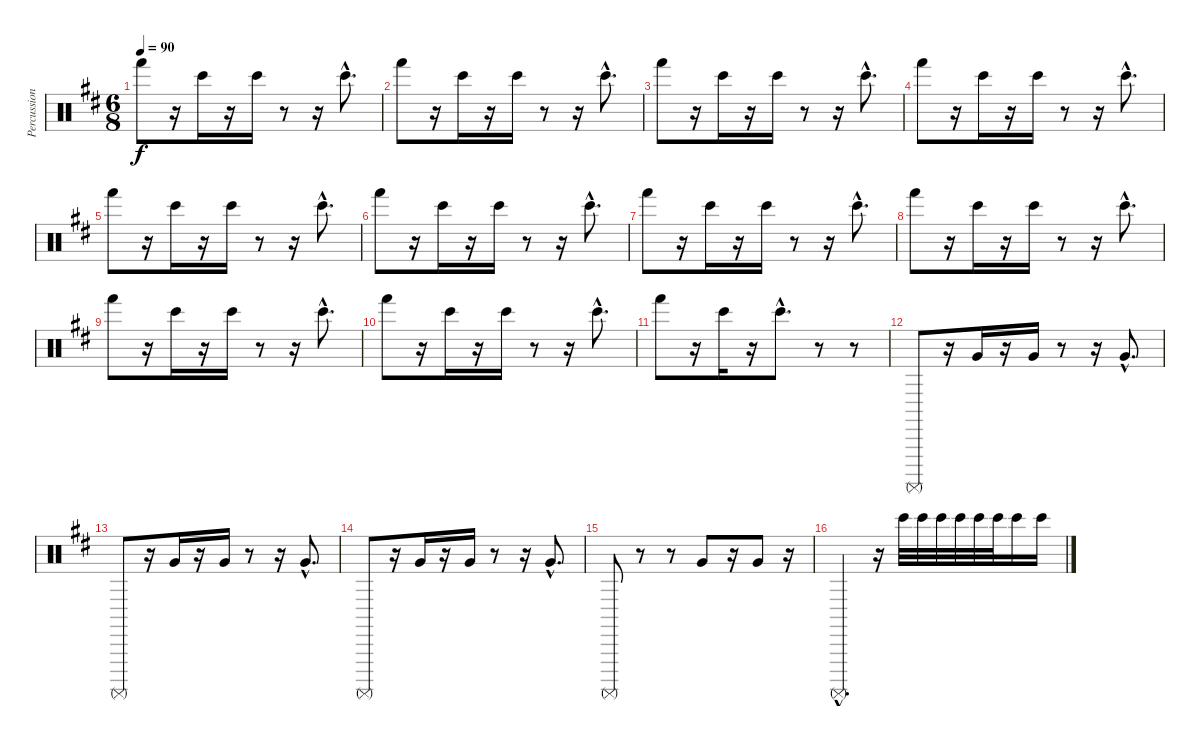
\track ("Percussioni" "Percussion") {instrument percussion}
\staff {score}
\articulation defaults
\ts (6 8)
\tempo 90
\clef neutral
\ks bminor "Hand (hit)".8{dy f}
r.16 "Bongo High (hit)".16 r.16 "Bongo High (hit)".16 r.8 r.16 "Bongo High (hit)"{hac}.8{d} |
"Hand (hit)".8 r.16 "Bongo High (hit)".16 r.16 "Bongo High (hit)".16 r.8 r.16 "Bongo High (hit)"{hac}.8{d} |
"Hand (hit)".8 r.16 "Bongo High (hit)".16 r.16 "Bongo High (hit)".16 r.8 r.16 "Bongo High (hit)"{hac}.8{d} |
"Hand (hit)".8 r.16 "Bongo High (hit)".16 r.16 "Bongo High (hit)".16 r.8 r.16 "Bongo High (hit)"{hac}.8{d} |
"Hand (hit)".8 r.16 "Bongo High (hit)".16 r.16 "Bongo High (hit)".16 r.8 r.16 "Bongo High (hit)"{hac}.8{d} |
"Hand (hit)".8 r.16 "Bongo High (hit)".16 r.16 "Bongo High (hit)".16 r.8 r.16 "Bongo High (hit)"{hac}.8{d} |
"Hand (hit)".8 r.16 "Bongo High (hit)".16 r.16 "Bongo High (hit)".16 r.8 r.16 "Bongo High (hit)"{hac}.8{d} |
"Hand (hit)".8 r.16 "Bongo High (hit)".16 r.16 "Bongo High (hit)".16 r.8 r.16 "Bongo High (hit)"{hac}.8{d} |
"Hand (hit)".8 r.16 "Bongo High (hit)".16 r.16 "Bongo High (hit)".16 r.8 r.16 "Bongo High (hit)"{hac}.8{d} |
"Hand (hit)".8 r.16 "Bongo High (hit)".16 r.16 "Bongo High (hit)".16 r.8 r.16 "Bongo High (hit)"{hac}.8{d} |
"Hand (hit)".8 r.16 "Bongo High (hit)".16 r.16 "Bongo High (hit)"{hac}.8{d} r.8 r.8 |
"Surdo (mute)".8 r.16 "Very Low Tom (hit)".16 r.16 "Very Low Tom (hit)".16 r.8 r.16 "Very Low Tom (hit)"{hac}.8{d} |
"Surdo (mute)".8 r.16 "Very Low Tom (hit)".16 r.16 "Very Low Tom (hit)".16 r.8 r.16 "Very Low Tom (hit)"{hac}.8{d} |
"Surdo (mute)".8 r.16 "Very Low Tom (hit)".16 r.16 "Very Low Tom (hit)".16 r.8 r.16 "Very Low Tom (hit)"{hac}.8{d} |
"Surdo (mute)".8 r.8 r.8 "Very Low Tom (hit)".8 r.16 "Very Low Tom (hit)".8 r.16 |
"Surdo (mute)"{hac}.4{d} r.16 "Bongo High (hit)".32 "Bongo High (hit)".32 "Bongo High (hit)".32 "Bongo High (hit)".32 "Bongo High (hit)".32 "Bongo High (hit)".32 "Bongo High (hit)".16 "Bongo High (hit)".16
